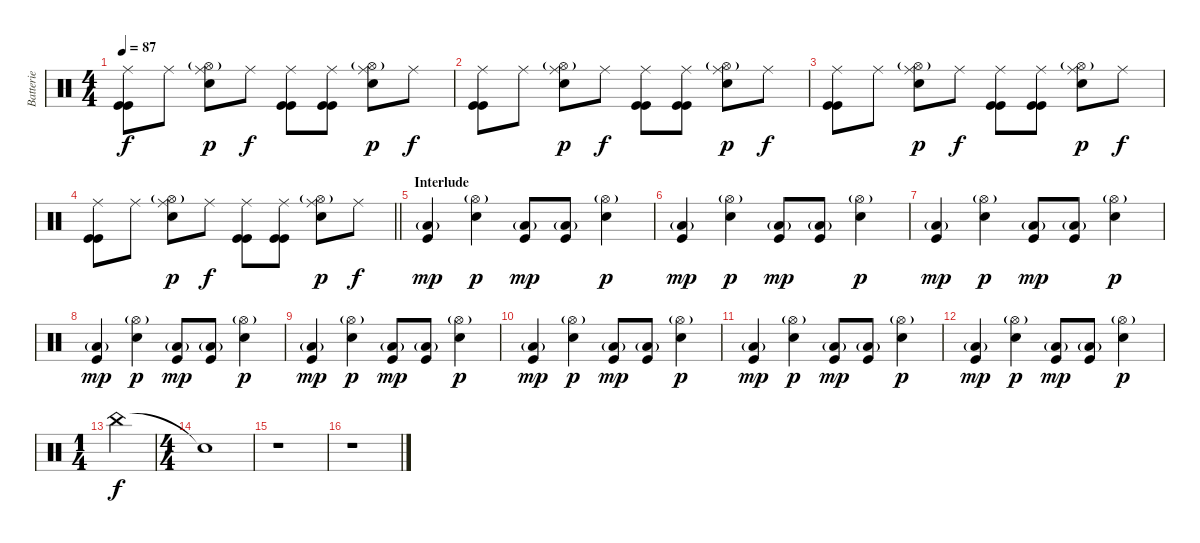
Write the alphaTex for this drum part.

\track ("Batterie" "Batterie") {instrument percussion}
\staff {score}
\articulation defaults
\ts (4 4)
\tempo 87
\clef neutral
\ks c
("Ride (middle)" "Kick (hit)" "Kick (hit)").8{dy f} "Ride (middle)".8 ("Hi-Hat (open)"{g} "Ride (middle)" "Electric Snare (hit)").8{dy p} "Ride (middle)".8{dy f} ("Ride (middle)" "Kick (hit)" "Kick (hit)").8 ("Ride (middle)" "Kick (hit)" "Kick (hit)").8 ("Hi-Hat (open)"{g} "Ride (middle)" "Electric Snare (hit)").8{dy p} "Ride (middle)".8{dy f} |
("Ride (middle)" "Kick (hit)" "Kick (hit)").8 "Ride (middle)".8 ("Hi-Hat (open)"{g} "Ride (middle)" "Electric Snare (hit)").8{dy p} "Ride (middle)".8{dy f} ("Ride (middle)" "Kick (hit)" "Kick (hit)").8 ("Ride (middle)" "Kick (hit)" "Kick (hit)").8 ("Hi-Hat (open)"{g} "Ride (middle)" "Electric Snare (hit)").8{dy p} "Ride (middle)".8{dy f} |
("Ride (middle)" "Kick (hit)" "Kick (hit)").8 "Ride (middle)".8 ("Hi-Hat (open)"{g} "Ride (middle)" "Electric Snare (hit)").8{dy p} "Ride (middle)".8{dy f} ("Ride (middle)" "Kick (hit)" "Kick (hit)").8 ("Ride (middle)" "Kick (hit)" "Kick (hit)").8 ("Hi-Hat (open)"{g} "Ride (middle)" "Electric Snare (hit)").8{dy p} "Ride (middle)".8{dy f} |
\barLineRight lightlight
("Ride (middle)" "Kick (hit)" "Kick (hit)").8 "Ride (middle)".8 ("Hi-Hat (open)"{g} "Ride (middle)" "Electric Snare (hit)").8{dy p} "Ride (middle)".8{dy f} ("Ride (middle)" "Kick (hit)" "Kick (hit)").8 ("Ride (middle)" "Kick (hit)" "Kick (hit)").8 ("Hi-Hat (open)"{g} "Ride (middle)" "Electric Snare (hit)").8{dy p} "Ride (middle)".8{dy f} |
\section ("" "Interlude")
("Kick (hit)" "Low Floor Tom (hit)"{g}).4{dy mp} ("Hi-Hat (open)"{g} "Electric Snare (hit)").4{dy p} ("Kick (hit)" "Low Floor Tom (hit)"{g}).8{dy mp} ("Kick (hit)" "Low Floor Tom (hit)"{g}).8 ("Hi-Hat (open)"{g} "Electric Snare (hit)").4{dy p} |
("Kick (hit)" "Low Floor Tom (hit)"{g}).4{dy mp} ("Hi-Hat (open)"{g} "Electric Snare (hit)").4{dy p} ("Kick (hit)" "Low Floor Tom (hit)"{g}).8{dy mp} ("Kick (hit)" "Low Floor Tom (hit)"{g}).8 ("Hi-Hat (open)"{g} "Electric Snare (hit)").4{dy p} |
("Kick (hit)" "Low Floor Tom (hit)"{g}).4{dy mp} ("Hi-Hat (open)"{g} "Electric Snare (hit)").4{dy p} ("Kick (hit)" "Low Floor Tom (hit)"{g}).8{dy mp} ("Kick (hit)" "Low Floor Tom (hit)"{g}).8 ("Hi-Hat (open)"{g} "Electric Snare (hit)").4{dy p} |
("Kick (hit)" "Low Floor Tom (hit)"{g}).4{dy mp} ("Hi-Hat (open)"{g} "Electric Snare (hit)").4{dy p} ("Kick (hit)" "Low Floor Tom (hit)"{g}).8{dy mp} ("Kick (hit)" "Low Floor Tom (hit)"{g}).8 ("Hi-Hat (open)"{g} "Electric Snare (hit)").4{dy p} |
("Kick (hit)" "Low Floor Tom (hit)"{g}).4{dy mp} ("Hi-Hat (open)"{g} "Electric Snare (hit)").4{dy p} ("Kick (hit)" "Low Floor Tom (hit)"{g}).8{dy mp} ("Kick (hit)" "Low Floor Tom (hit)"{g}).8 ("Hi-Hat (open)"{g} "Electric Snare (hit)").4{dy p} |
("Kick (hit)" "Low Floor Tom (hit)"{g}).4{dy mp} ("Hi-Hat (open)"{g} "Electric Snare (hit)").4{dy p} ("Kick (hit)" "Low Floor Tom (hit)"{g}).8{dy mp} ("Kick (hit)" "Low Floor Tom (hit)"{g}).8 ("Hi-Hat (open)"{g} "Electric Snare (hit)").4{dy p} |
("Kick (hit)" "Low Floor Tom (hit)"{g}).4{dy mp} ("Hi-Hat (open)"{g} "Electric Snare (hit)").4{dy p} ("Kick (hit)" "Low Floor Tom (hit)"{g}).8{dy mp} ("Kick (hit)" "Low Floor Tom (hit)"{g}).8 ("Hi-Hat (open)"{g} "Electric Snare (hit)").4{dy p} |
("Kick (hit)" "Low Floor Tom (hit)"{g}).4{dy mp} ("Hi-Hat (open)"{g} "Electric Snare (hit)").4{dy p} ("Kick (hit)" "Low Floor Tom (hit)"{g}).8{dy mp} ("Kick (hit)" "Low Floor Tom (hit)"{g}).8 ("Hi-Hat (open)"{g} "Electric Snare (hit)").4{dy p} |
\ts (1 4)
"China (hit)".4{dy f} |
\ts (4 4)
"Snare (hit)"{t}.1 |
r.1 |
r.1
